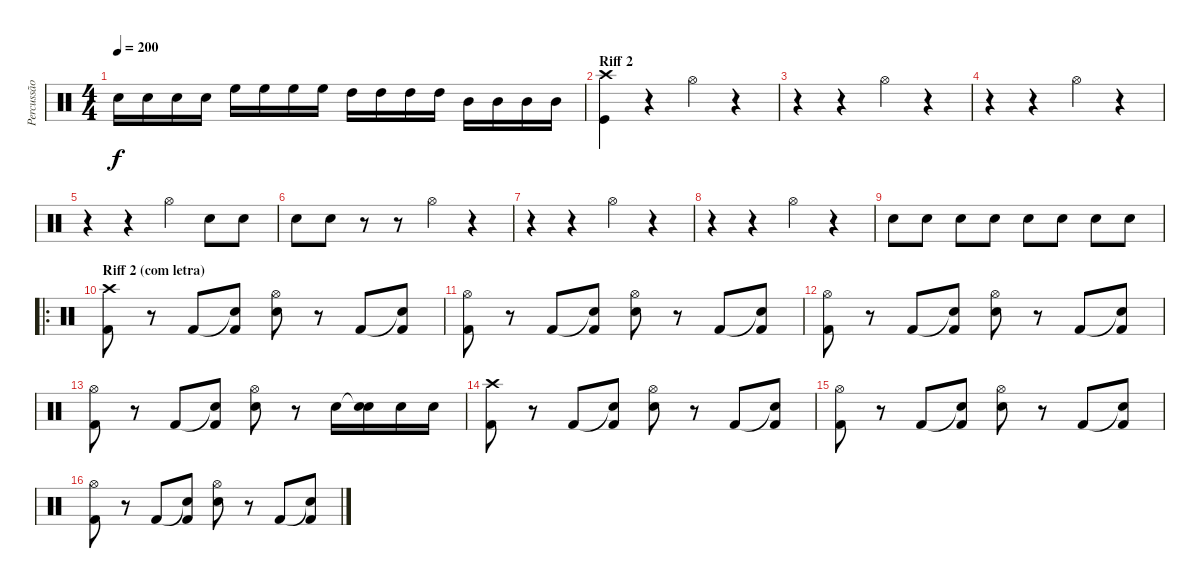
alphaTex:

\track ("Percussão" "Percussão") {instrument percussion}
\staff {score}
\articulation defaults
\ts (4 4)
\tempo 200
\clef neutral
\ks c "Electric Snare (hit)".16{dy f} "Electric Snare (hit)".16 "Electric Snare (hit)".16 "Electric Snare (hit)".16 "High Floor Tom (hit)".16 "High Floor Tom (hit)".16 "High Floor Tom (hit)".16 "High Floor Tom (hit)".16 "High Tom (hit)".16 "High Tom (hit)".16 "High Tom (hit)".16 "High Tom (hit)".16 "Mid Tom (hit)".16 "Mid Tom (hit)".16 "Mid Tom (hit)".16 "Mid Tom (hit)".16
|
\section ("" "Riff 2")
("Crash high (hit)" "Kick (hit)").4 r.4 "Hi-Hat (open)".4 r.4 |
r.4 r.4 "Hi-Hat (open)".4 r.4 |
r.4 r.4 "Hi-Hat (open)".4 r.4 |
r.4 r.4 "Hi-Hat (open)".4 "Electric Snare (hit)".8 "Electric Snare (hit)".8 |
"Electric Snare (hit)".8 "Electric Snare (hit)".8 r.8 r.8 "Hi-Hat (open)".4 r.4 |
r.4 r.4 "Hi-Hat (open)".4 r.4 |
r.4 r.4 "Hi-Hat (open)".4 r.4 |
"Electric Snare (hit)".8 "Electric Snare (hit)".8 "Electric Snare (hit)".8 "Electric Snare (hit)".8 "Electric Snare (hit)".8 "Electric Snare (hit)".8 "Electric Snare (hit)".8 "Electric Snare (hit)".8 |
\ro
\section ("" "Riff 2 (com letra)")
("Crash high (hit)" "Kick (hit) 2").8 r.8 "Kick (hit) 2".8 ("Snare (hit)"{t} "Kick (hit) 2").8 ("Hi-Hat (open)" "Electric Snare (hit)").8 r.8 "Kick (hit) 2".8 ("Snare (hit)"{t} "Kick (hit) 2").8 |
("Hi-Hat (open)" "Kick (hit) 2").8 r.8 "Kick (hit) 2".8 ("Snare (hit)"{t} "Kick (hit) 2").8 ("Hi-Hat (open)" "Electric Snare (hit)").8 r.8 "Kick (hit) 2".8 ("Snare (hit)"{t} "Kick (hit) 2").8 |
("Hi-Hat (open)" "Kick (hit) 2").8 r.8 "Kick (hit) 2".8 ("Snare (hit)"{t} "Kick (hit) 2").8 ("Hi-Hat (open)" "Electric Snare (hit)").8 r.8 "Kick (hit) 2".8 ("Snare (hit)"{t} "Kick (hit) 2").8 |
("Hi-Hat (open)" "Kick (hit) 2").8 r.8 "Kick (hit) 2".8 ("Snare (hit)"{t} "Kick (hit) 2").8 ("Hi-Hat (open)" "Electric Snare (hit)").8 r.8 "Electric Snare (hit)".16 ("Snare (hit)"{t} "Electric Snare (hit)").16 "Electric Snare (hit)".16 "Electric Snare (hit)".16 |
("Crash high (hit)" "Kick (hit) 2").8 r.8 "Kick (hit) 2".8 ("Snare (hit)"{t} "Kick (hit) 2").8 ("Hi-Hat (open)" "Electric Snare (hit)").8 r.8 "Kick (hit) 2".8 ("Snare (hit)"{t} "Kick (hit) 2").8 |
("Hi-Hat (open)" "Kick (hit) 2").8 r.8 "Kick (hit) 2".8 ("Snare (hit)"{t} "Kick (hit) 2").8 ("Hi-Hat (open)" "Electric Snare (hit)").8 r.8 "Kick (hit) 2".8 ("Snare (hit)"{t} "Kick (hit) 2").8 |
("Hi-Hat (open)" "Kick (hit) 2").8 r.8 "Kick (hit) 2".8 ("Snare (hit)"{t} "Kick (hit) 2").8 ("Hi-Hat (open)" "Electric Snare (hit)").8 r.8 "Kick (hit) 2".8 ("Snare (hit)"{t} "Kick (hit) 2").8
